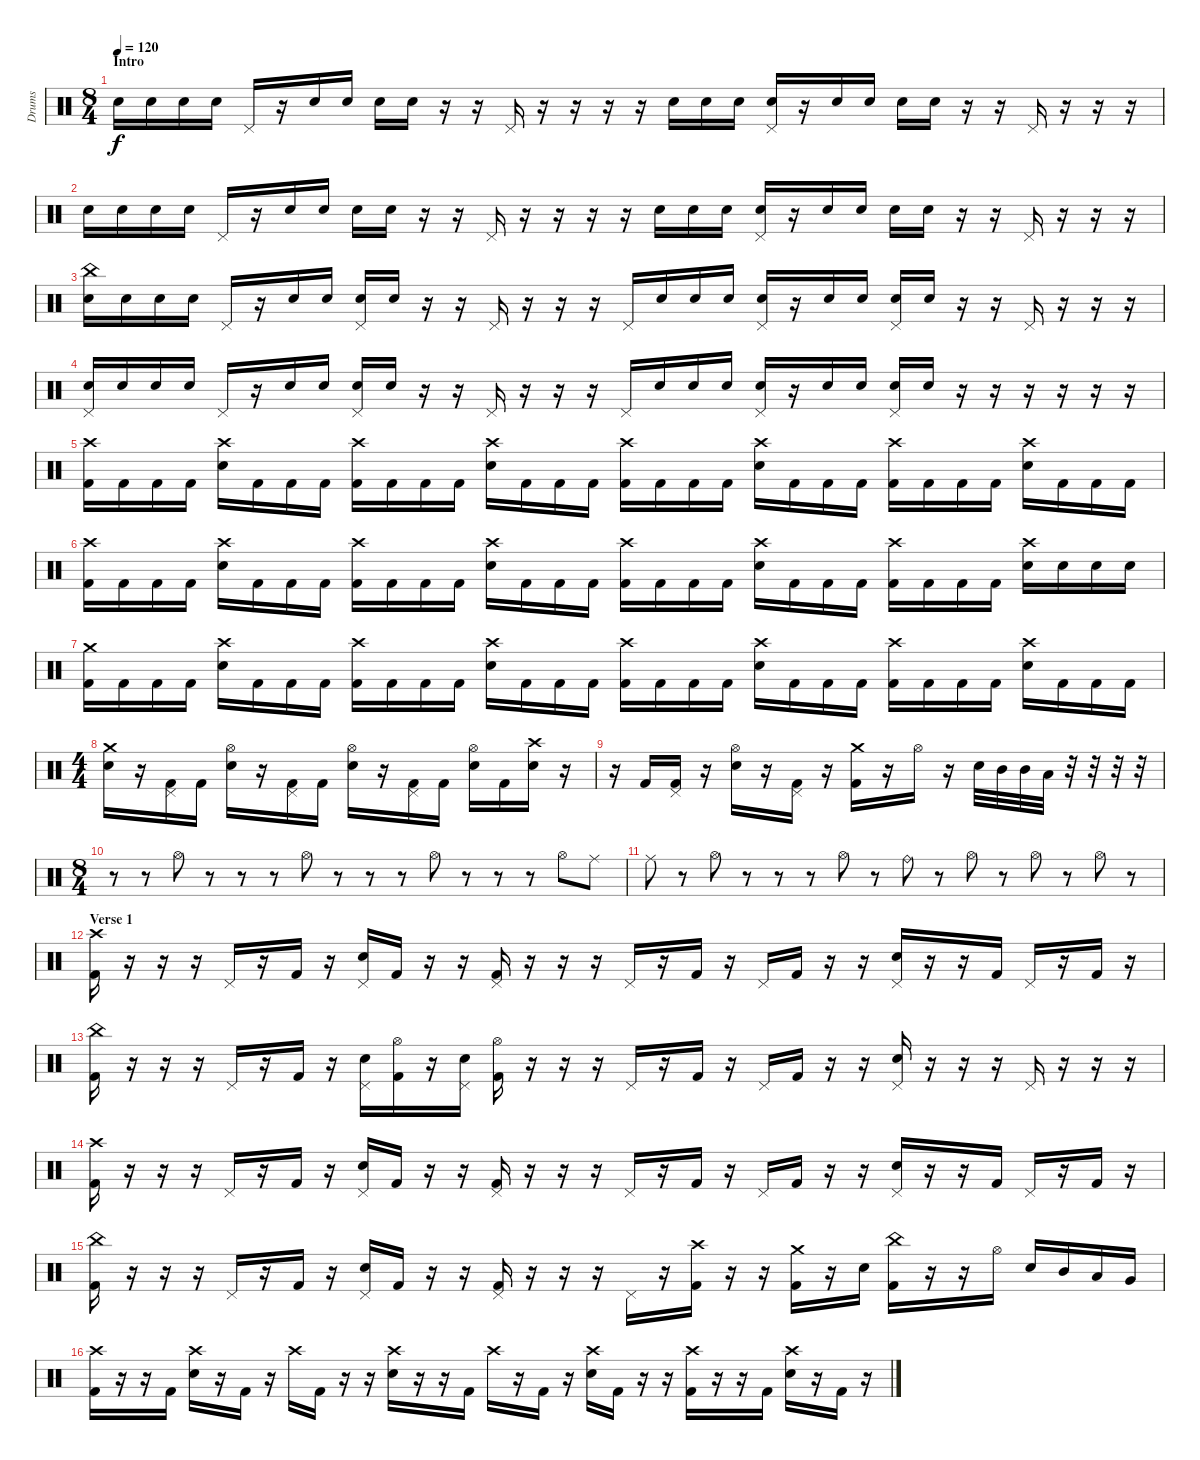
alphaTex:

\track ("Drums" "Drums") {instrument percussion}
\staff {score}
\articulation defaults
\ts (8 4)
\section ("" "Intro")
\tempo 120
\clef neutral
\ks c "Electric Snare (hit)".16{dy f} "Electric Snare (hit)".16 "Electric Snare (hit)".16 "Electric Snare (hit)".16 "Pedal Hi-Hat (hit)".16
r.16 "Electric Snare (hit)".16 "Electric Snare (hit)".16 "Electric Snare (hit)".16 "Electric Snare (hit)".16 r.16 r.16 "Pedal Hi-Hat (hit)".16 r.16 r.16 r.16 r.16 "Electric Snare (hit)".16 "Electric Snare (hit)".16 "Electric Snare (hit)".16 ("Pedal Hi-Hat (hit)" "Electric Snare (hit)").16 r.16 "Electric Snare (hit)".16 "Electric Snare (hit)".16 "Electric Snare (hit)".16 "Electric Snare (hit)".16 r.16 r.16 "Pedal Hi-Hat (hit)".16 r.16 r.16 r.16 |
"Electric Snare (hit)".16 "Electric Snare (hit)".16 "Electric Snare (hit)".16 "Electric Snare (hit)".16 "Pedal Hi-Hat (hit)".16 r.16 "Electric Snare (hit)".16 "Electric Snare (hit)".16 "Electric Snare (hit)".16 "Electric Snare (hit)".16 r.16 r.16 "Pedal Hi-Hat (hit)".16 r.16 r.16 r.16 r.16 "Electric Snare (hit)".16 "Electric Snare (hit)".16 "Electric Snare (hit)".16 ("Pedal Hi-Hat (hit)" "Electric Snare (hit)").16 r.16 "Electric Snare (hit)".16 "Electric Snare (hit)".16 "Electric Snare (hit)".16 "Electric Snare (hit)".16 r.16 r.16 "Pedal Hi-Hat (hit)".16 r.16 r.16 r.16 |
("China (hit)" "Electric Snare (hit)").16 "Electric Snare (hit)".16 "Electric Snare (hit)".16 "Electric Snare (hit)".16 "Pedal Hi-Hat (hit)".16 r.16 "Electric Snare (hit)".16 "Electric Snare (hit)".16 ("Pedal Hi-Hat (hit)" "Electric Snare (hit)").16 "Electric Snare (hit)".16 r.16 r.16 "Pedal Hi-Hat (hit)".16 r.16 r.16 r.16 "Pedal Hi-Hat (hit)".16 "Electric Snare (hit)".16 "Electric Snare (hit)".16 "Electric Snare (hit)".16 ("Pedal Hi-Hat (hit)" "Electric Snare (hit)").16 r.16 "Electric Snare (hit)".16 "Electric Snare (hit)".16 ("Pedal Hi-Hat (hit)" "Electric Snare (hit)").16 "Electric Snare (hit)".16 r.16 r.16 "Pedal Hi-Hat (hit)".16 r.16 r.16 r.16 |
("Pedal Hi-Hat (hit)" "Electric Snare (hit)").16 "Electric Snare (hit)".16 "Electric Snare (hit)".16 "Electric Snare (hit)".16 "Pedal Hi-Hat (hit)".16 r.16 "Electric Snare (hit)".16 "Electric Snare (hit)".16 ("Pedal Hi-Hat (hit)" "Electric Snare (hit)").16 "Electric Snare (hit)".16 r.16 r.16 "Pedal Hi-Hat (hit)".16 r.16 r.16 r.16 "Pedal Hi-Hat (hit)".16 "Electric Snare (hit)".16 "Electric Snare (hit)".16 "Electric Snare (hit)".16 ("Pedal Hi-Hat (hit)" "Electric Snare (hit)").16 r.16 "Electric Snare (hit)".16 "Electric Snare (hit)".16 ("Pedal Hi-Hat (hit)" "Electric Snare (hit)").16 "Electric Snare (hit)".16 r.16 r.16 r.16 r.16 r.16 r.16 |
("Crash high (hit)" "Kick (hit) 2").16 "Kick (hit) 2".16 "Kick (hit) 2".16 "Kick (hit) 2".16 ("Crash high (hit)" "Electric Snare (hit)").16 "Kick (hit) 2".16 "Kick (hit) 2".16 "Kick (hit) 2".16 ("Crash high (hit)" "Kick (hit) 2").16 "Kick (hit) 2".16 "Kick (hit) 2".16 "Kick (hit) 2".16 ("Crash high (hit)" "Electric Snare (hit)").16 "Kick (hit) 2".16 "Kick (hit) 2".16 "Kick (hit) 2".16 ("Crash high (hit)" "Kick (hit) 2").16 "Kick (hit) 2".16 "Kick (hit) 2".16 "Kick (hit) 2".16 ("Crash high (hit)" "Electric Snare (hit)").16 "Kick (hit) 2".16 "Kick (hit) 2".16 "Kick (hit) 2".16 ("Crash high (hit)" "Kick (hit) 2").16 "Kick (hit) 2".16 "Kick (hit) 2".16 "Kick (hit) 2".16 ("Crash high (hit)" "Electric Snare (hit)").16 "Kick (hit) 2".16 "Kick (hit) 2".16 "Kick (hit) 2".16 |
("Crash high (hit)" "Kick (hit) 2").16 "Kick (hit) 2".16 "Kick (hit) 2".16 "Kick (hit) 2".16 ("Crash high (hit)" "Electric Snare (hit)").16 "Kick (hit) 2".16 "Kick (hit) 2".16 "Kick (hit) 2".16 ("Crash high (hit)" "Kick (hit) 2").16 "Kick (hit) 2".16 "Kick (hit) 2".16 "Kick (hit) 2".16 ("Crash high (hit)" "Electric Snare (hit)").16 "Kick (hit) 2".16 "Kick (hit) 2".16 "Kick (hit) 2".16 ("Crash high (hit)" "Kick (hit) 2").16 "Kick (hit) 2".16 "Kick (hit) 2".16 "Kick (hit) 2".16 ("Crash high (hit)" "Electric Snare (hit)").16 "Kick (hit) 2".16 "Kick (hit) 2".16 "Kick (hit) 2".16 ("Crash high (hit)" "Kick (hit) 2").16 "Kick (hit) 2".16 "Kick (hit) 2".16 "Kick (hit) 2".16 ("Crash high (hit)" "Electric Snare (hit)").16 "Electric Snare (hit)".16 "Electric Snare (hit)".16 "Electric Snare (hit)".16 |
("Crash medium (hit)" "Kick (hit) 2").16 "Kick (hit) 2".16 "Kick (hit) 2".16 "Kick (hit) 2".16 ("Crash high (hit)" "Electric Snare (hit)").16 "Kick (hit) 2".16 "Kick (hit) 2".16 "Kick (hit) 2".16 ("Crash high (hit)" "Kick (hit) 2").16 "Kick (hit) 2".16 "Kick (hit) 2".16 "Kick (hit) 2".16 ("Crash high (hit)" "Electric Snare (hit)").16 "Kick (hit) 2".16 "Kick (hit) 2".16 "Kick (hit) 2".16 ("Crash high (hit)" "Kick (hit) 2").16 "Kick (hit) 2".16 "Kick (hit) 2".16 "Kick (hit) 2".16 ("Crash high (hit)" "Electric Snare (hit)").16 "Kick (hit) 2".16 "Kick (hit) 2".16 "Kick (hit) 2".16 ("Crash high (hit)" "Kick (hit) 2").16 "Kick (hit) 2".16 "Kick (hit) 2".16 "Kick (hit) 2".16 ("Crash high (hit)" "Electric Snare (hit)").16 "Kick (hit) 2".16 "Kick (hit) 2".16 "Kick (hit) 2".16 |
\ts (4 4)
("Crash medium (hit)" "Electric Snare (hit)").16 r.16 ("Pedal Hi-Hat (hit)" "Kick (hit) 2").16 "Kick (hit) 2".16 ("Hi-Hat (open)" "Electric Snare (hit)").16 r.16 ("Pedal Hi-Hat (hit)" "Kick (hit) 2").16 "Kick (hit) 2".16 ("Hi-Hat (open)" "Electric Snare (hit)").16 r.16 ("Pedal Hi-Hat (hit)" "Kick (hit) 2").16 "Kick (hit) 2".16 ("Hi-Hat (open)" "Electric Snare (hit)").16 "Kick (hit) 2".16 ("Crash high (hit)" "Electric Snare (hit)").16 r.16 |
r.16 "Kick (hit) 2".16 ("Pedal Hi-Hat (hit)" "Kick (hit) 2").16 r.16 ("Hi-Hat (open)" "Electric Snare (hit)").16 r.16 ("Pedal Hi-Hat (hit)" "Kick (hit) 2").16 r.16 ("Crash medium (hit)" "Kick (hit) 2").16 r.16 "Hi-Hat (open)".16 r.16 "Electric Snare (hit)".32 "Mid Tom (hit)".32 "Mid Tom (hit)".32 "Low Tom (hit)".32 r.32 r.32 r.32 r.32 |
\ts (8 4)
r.8 r.8 "Hi-Hat (open)".8 r.8 r.8 r.8 "Hi-Hat (open)".8 r.8 r.8 r.8 "Hi-Hat (open)".8 r.8 r.8 r.8 "Hi-Hat (open)".8 "Ride (middle)".8 |
"Ride (middle)".8 r.8 "Hi-Hat (open)".8 r.8 r.8 r.8 "Hi-Hat (open)".8 r.8 "Ride (bell)".8 r.8 "Hi-Hat (open)".8 r.8 "Hi-Hat (open)".8 r.8 "Hi-Hat (open)".8 r.8 |
\section ("" "Verse 1")
("Crash high (hit)" "Kick (hit) 2").16 r.16 r.16 r.16 "Pedal Hi-Hat (hit)".16 r.16 "Kick (hit) 2".16 r.16 ("Pedal Hi-Hat (hit)" "Electric Snare (hit)").16 "Kick (hit) 2".16 r.16 r.16 ("Pedal Hi-Hat (hit)" "Kick (hit) 2").16 r.16 r.16 r.16 "Pedal Hi-Hat (hit)".16 r.16 "Kick (hit) 2".16 r.16 "Pedal Hi-Hat (hit)".16 "Kick (hit) 2".16 r.16 r.16 ("Pedal Hi-Hat (hit)" "Electric Snare (hit)").16 r.16 r.16 "Kick (hit) 2".16 "Pedal Hi-Hat (hit)".16 r.16 "Kick (hit) 2".16 r.16 |
("China (hit)" "Kick (hit) 2").16 r.16 r.16 r.16 "Pedal Hi-Hat (hit)".16 r.16 "Kick (hit) 2".16 r.16 ("Pedal Hi-Hat (hit)" "Electric Snare (hit)").16 ("Hi-Hat (open)" "Kick (hit) 2").16 r.16 ("Pedal Hi-Hat (hit)" "Electric Snare (hit)").16 ("Hi-Hat (open)" "Kick (hit) 2").16 r.16 r.16 r.16 "Pedal Hi-Hat (hit)".16 r.16 "Kick (hit) 2".16 r.16 "Pedal Hi-Hat (hit)".16 "Kick (hit) 2".16 r.16 r.16 ("Pedal Hi-Hat (hit)" "Electric Snare (hit)").16 r.16 r.16 r.16 "Pedal Hi-Hat (hit)".16 r.16 r.16 r.16 |
("Crash high (hit)" "Kick (hit) 2").16 r.16 r.16 r.16 "Pedal Hi-Hat (hit)".16 r.16 "Kick (hit) 2".16 r.16 ("Pedal Hi-Hat (hit)" "Electric Snare (hit)").16 "Kick (hit) 2".16 r.16 r.16 ("Pedal Hi-Hat (hit)" "Kick (hit) 2").16 r.16 r.16 r.16 "Pedal Hi-Hat (hit)".16 r.16 "Kick (hit) 2".16 r.16 "Pedal Hi-Hat (hit)".16 "Kick (hit) 2".16 r.16 r.16 ("Pedal Hi-Hat (hit)" "Electric Snare (hit)").16 r.16 r.16 "Kick (hit) 2".16 "Pedal Hi-Hat (hit)".16 r.16 "Kick (hit) 2".16 r.16 |
("China (hit)" "Kick (hit) 2").16 r.16 r.16 r.16 "Pedal Hi-Hat (hit)".16 r.16 "Kick (hit) 2".16 r.16 ("Pedal Hi-Hat (hit)" "Electric Snare (hit)").16 "Kick (hit) 2".16 r.16 r.16 ("Pedal Hi-Hat (hit)" "Kick (hit) 2").16 r.16 r.16 r.16 "Pedal Hi-Hat (hit)".16 r.16 ("Crash high (hit)" "Kick (hit) 2").16 r.16 r.16 ("Crash medium (hit)" "Kick (hit) 2").16 r.16 "Electric Snare (hit)".16 ("China (hit)" "Kick (hit) 2").16 r.16 r.16 "Hi-Hat (open)".16 "Electric Snare (hit)".16 "Mid Tom (hit)".16 "Low Tom (hit)".16 "Very Low Tom (hit)".16 |
("Crash high (hit)" "Kick (hit) 2").16 r.16 r.16 "Kick (hit) 2".16 ("Crash high (hit)" "Electric Snare (hit)").16 r.16 "Kick (hit) 2".16 r.16 "Crash high (hit)".16 "Kick (hit) 2".16 r.16 r.16 ("Crash high (hit)" "Electric Snare (hit)").16 r.16 r.16 "Kick (hit) 2".16 "Crash high (hit)".16 r.16 "Kick (hit) 2".16 r.16 ("Crash high (hit)" "Electric Snare (hit)").16 "Kick (hit) 2".16 r.16 r.16 ("Crash high (hit)" "Kick (hit) 2").16 r.16 r.16 "Kick (hit) 2".16 ("Crash high (hit)" "Electric Snare (hit)").16 r.16 "Kick (hit) 2".16 r.16
